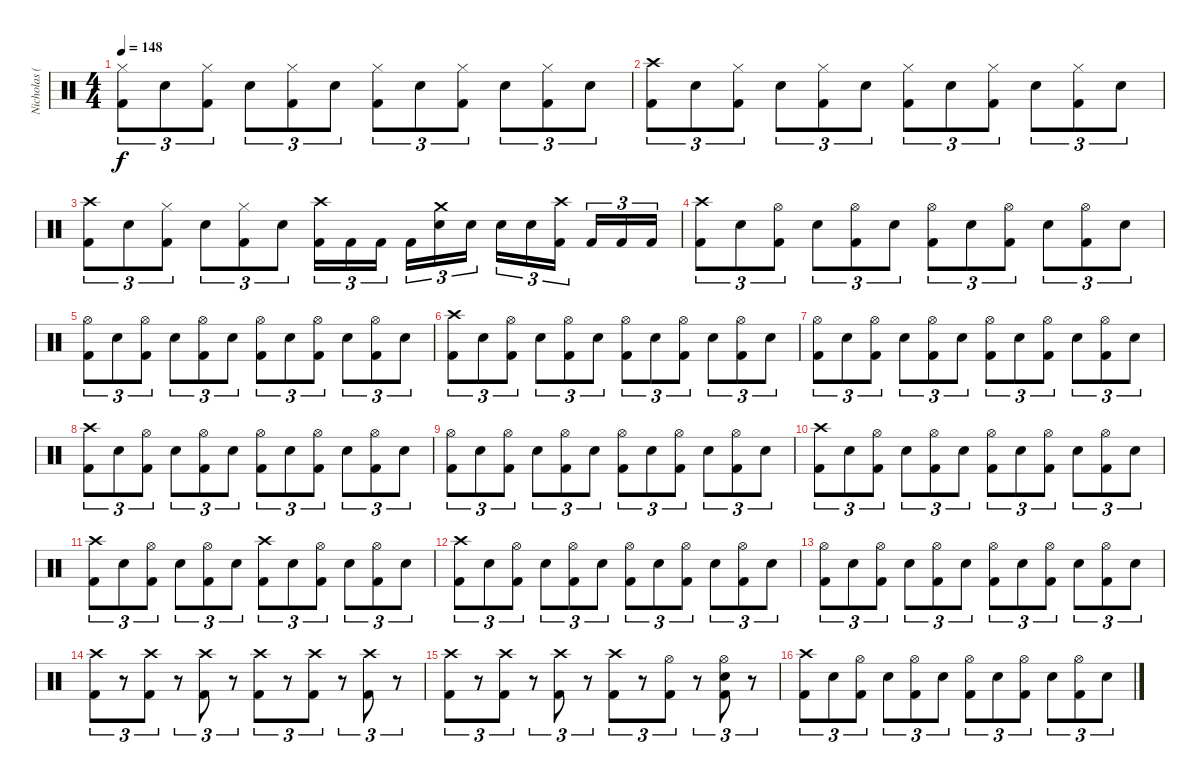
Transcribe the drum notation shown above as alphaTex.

\track ("Nicholas (Drums)" "Nicholas (") {instrument percussion}
\staff {score}
\articulation defaults
\ts (4 4)
\tempo 148
\clef neutral
\ks c
("Hi-Hat (closed)" "Kick (hit) 2").8{tu (3 2) dy f} "Electric Snare (hit)".8{tu (3 2)} ("Hi-Hat (closed)" "Kick (hit) 2").8{tu (3 2)} "Electric Snare (hit)".8{tu (3 2)} ("Hi-Hat (closed)" "Kick (hit) 2").8{tu (3 2)} "Electric Snare (hit)".8{tu (3 2)} ("Hi-Hat (closed)" "Kick (hit) 2").8{tu (3 2)} "Electric Snare (hit)".8{tu (3 2)} ("Hi-Hat (closed)" "Kick (hit) 2").8{tu (3 2)} "Electric Snare (hit)".8{tu (3 2)} ("Hi-Hat (closed)" "Kick (hit) 2").8{tu (3 2)} "Electric Snare (hit)".8{tu (3 2)} |
("Crash high (hit)" "Kick (hit) 2").8{tu (3 2)} "Electric Snare (hit)".8{tu (3 2)} ("Hi-Hat (closed)" "Kick (hit) 2").8{tu (3 2)} "Electric Snare (hit)".8{tu (3 2)} ("Hi-Hat (closed)" "Kick (hit) 2").8{tu (3 2)} "Electric Snare (hit)".8{tu (3 2)} ("Hi-Hat (closed)" "Kick (hit) 2").8{tu (3 2)} "Electric Snare (hit)".8{tu (3 2)} ("Hi-Hat (closed)" "Kick (hit) 2").8{tu (3 2)} "Electric Snare (hit)".8{tu (3 2)} ("Hi-Hat (closed)" "Kick (hit) 2").8{tu (3 2)} "Electric Snare (hit)".8{tu (3 2)} |
("Crash high (hit)" "Kick (hit) 2").8{tu (3 2)} "Electric Snare (hit)".8{tu (3 2)} ("Hi-Hat (closed)" "Kick (hit) 2").8{tu (3 2)} "Electric Snare (hit)".8{tu (3 2)} ("Hi-Hat (closed)" "Kick (hit) 2").8{tu (3 2)} "Electric Snare (hit)".8{tu (3 2)} ("Crash high (hit)" "Kick (hit) 2").16{tu (3 2)} "Kick (hit) 2".16{tu (3 2)} "Kick (hit) 2".16{tu (3 2)} "Kick (hit) 2".16{tu (3 2)} ("Crash medium (hit)" "Electric Snare (hit)").16{tu (3 2)} "Electric Snare (hit)".16{tu (3 2)} "Electric Snare (hit)".16{tu (3 2)} "Electric Snare (hit)".16{tu (3 2)} ("Crash high (hit)" "Kick (hit) 2").16{tu (3 2)} "Kick (hit) 2".16{tu (3 2)} "Kick (hit) 2".16{tu (3 2)} "Kick (hit) 2".16{tu (3 2)} |
("Crash high (hit)" "Kick (hit) 2").8{tu (3 2)} "Electric Snare (hit)".8{tu (3 2)} ("Hi-Hat (open)" "Kick (hit) 2").8{tu (3 2)} "Electric Snare (hit)".8{tu (3 2)} ("Hi-Hat (open)" "Kick (hit) 2").8{tu (3 2)} "Electric Snare (hit)".8{tu (3 2)} ("Hi-Hat (open)" "Kick (hit) 2").8{tu (3 2)} "Electric Snare (hit)".8{tu (3 2)} ("Hi-Hat (open)" "Kick (hit) 2").8{tu (3 2)} "Electric Snare (hit)".8{tu (3 2)} ("Hi-Hat (open)" "Kick (hit) 2").8{tu (3 2)} "Electric Snare (hit)".8{tu (3 2)} |
("Hi-Hat (open)" "Kick (hit) 2").8{tu (3 2)} "Electric Snare (hit)".8{tu (3 2)} ("Hi-Hat (open)" "Kick (hit) 2").8{tu (3 2)} "Electric Snare (hit)".8{tu (3 2)} ("Hi-Hat (open)" "Kick (hit) 2").8{tu (3 2)} "Electric Snare (hit)".8{tu (3 2)} ("Hi-Hat (open)" "Kick (hit) 2").8{tu (3 2)} "Electric Snare (hit)".8{tu (3 2)} ("Hi-Hat (open)" "Kick (hit) 2").8{tu (3 2)} "Electric Snare (hit)".8{tu (3 2)} ("Hi-Hat (open)" "Kick (hit) 2").8{tu (3 2)} "Electric Snare (hit)".8{tu (3 2)} |
("Crash high (hit)" "Kick (hit) 2").8{tu (3 2)} "Electric Snare (hit)".8{tu (3 2)} ("Hi-Hat (open)" "Kick (hit) 2").8{tu (3 2)} "Electric Snare (hit)".8{tu (3 2)} ("Hi-Hat (open)" "Kick (hit) 2").8{tu (3 2)} "Electric Snare (hit)".8{tu (3 2)} ("Hi-Hat (open)" "Kick (hit) 2").8{tu (3 2)} "Electric Snare (hit)".8{tu (3 2)} ("Hi-Hat (open)" "Kick (hit) 2").8{tu (3 2)} "Electric Snare (hit)".8{tu (3 2)} ("Hi-Hat (open)" "Kick (hit) 2").8{tu (3 2)} "Electric Snare (hit)".8{tu (3 2)} |
("Hi-Hat (open)" "Kick (hit) 2").8{tu (3 2)} "Electric Snare (hit)".8{tu (3 2)} ("Hi-Hat (open)" "Kick (hit) 2").8{tu (3 2)} "Electric Snare (hit)".8{tu (3 2)} ("Hi-Hat (open)" "Kick (hit) 2").8{tu (3 2)} "Electric Snare (hit)".8{tu (3 2)} ("Hi-Hat (open)" "Kick (hit) 2").8{tu (3 2)} "Electric Snare (hit)".8{tu (3 2)} ("Hi-Hat (open)" "Kick (hit) 2").8{tu (3 2)} "Electric Snare (hit)".8{tu (3 2)} ("Hi-Hat (open)" "Kick (hit) 2").8{tu (3 2)} "Electric Snare (hit)".8{tu (3 2)} |
("Crash high (hit)" "Kick (hit) 2").8{tu (3 2)} "Electric Snare (hit)".8{tu (3 2)} ("Hi-Hat (open)" "Kick (hit) 2").8{tu (3 2)} "Electric Snare (hit)".8{tu (3 2)} ("Hi-Hat (open)" "Kick (hit) 2").8{tu (3 2)} "Electric Snare (hit)".8{tu (3 2)} ("Hi-Hat (open)" "Kick (hit) 2").8{tu (3 2)} "Electric Snare (hit)".8{tu (3 2)} ("Hi-Hat (open)" "Kick (hit) 2").8{tu (3 2)} "Electric Snare (hit)".8{tu (3 2)} ("Hi-Hat (open)" "Kick (hit) 2").8{tu (3 2)} "Electric Snare (hit)".8{tu (3 2)} |
("Hi-Hat (open)" "Kick (hit) 2").8{tu (3 2)} "Electric Snare (hit)".8{tu (3 2)} ("Hi-Hat (open)" "Kick (hit) 2").8{tu (3 2)} "Electric Snare (hit)".8{tu (3 2)} ("Hi-Hat (open)" "Kick (hit) 2").8{tu (3 2)} "Electric Snare (hit)".8{tu (3 2)} ("Hi-Hat (open)" "Kick (hit) 2").8{tu (3 2)} "Electric Snare (hit)".8{tu (3 2)} ("Hi-Hat (open)" "Kick (hit) 2").8{tu (3 2)} "Electric Snare (hit)".8{tu (3 2)} ("Hi-Hat (open)" "Kick (hit) 2").8{tu (3 2)} "Electric Snare (hit)".8{tu (3 2)} |
("Crash high (hit)" "Kick (hit) 2").8{tu (3 2)} "Electric Snare (hit)".8{tu (3 2)} ("Hi-Hat (open)" "Kick (hit) 2").8{tu (3 2)} "Electric Snare (hit)".8{tu (3 2)} ("Hi-Hat (open)" "Kick (hit) 2").8{tu (3 2)} "Electric Snare (hit)".8{tu (3 2)} ("Hi-Hat (open)" "Kick (hit) 2").8{tu (3 2)} "Electric Snare (hit)".8{tu (3 2)} ("Hi-Hat (open)" "Kick (hit) 2").8{tu (3 2)} "Electric Snare (hit)".8{tu (3 2)} ("Hi-Hat (open)" "Kick (hit) 2").8{tu (3 2)} "Electric Snare (hit)".8{tu (3 2)} |
("Crash high (hit)" "Kick (hit) 2").8{tu (3 2)} "Electric Snare (hit)".8{tu (3 2)} ("Hi-Hat (open)" "Kick (hit) 2").8{tu (3 2)} "Electric Snare (hit)".8{tu (3 2)} ("Hi-Hat (open)" "Kick (hit) 2").8{tu (3 2)} "Electric Snare (hit)".8{tu (3 2)} ("Crash high (hit)" "Kick (hit) 2").8{tu (3 2)} "Electric Snare (hit)".8{tu (3 2)} ("Hi-Hat (open)" "Kick (hit) 2").8{tu (3 2)} "Electric Snare (hit)".8{tu (3 2)} ("Hi-Hat (open)" "Kick (hit) 2").8{tu (3 2)} "Electric Snare (hit)".8{tu (3 2)} |
("Crash high (hit)" "Kick (hit) 2").8{tu (3 2)} "Electric Snare (hit)".8{tu (3 2)} ("Hi-Hat (open)" "Kick (hit) 2").8{tu (3 2)} "Electric Snare (hit)".8{tu (3 2)} ("Hi-Hat (open)" "Kick (hit) 2").8{tu (3 2)} "Electric Snare (hit)".8{tu (3 2)} ("Hi-Hat (open)" "Kick (hit) 2").8{tu (3 2)} "Electric Snare (hit)".8{tu (3 2)} ("Hi-Hat (open)" "Kick (hit) 2").8{tu (3 2)} "Electric Snare (hit)".8{tu (3 2)} ("Hi-Hat (open)" "Kick (hit) 2").8{tu (3 2)} "Electric Snare (hit)".8{tu (3 2)} |
("Hi-Hat (open)" "Kick (hit) 2").8{tu (3 2)} "Electric Snare (hit)".8{tu (3 2)} ("Hi-Hat (open)" "Kick (hit) 2").8{tu (3 2)} "Electric Snare (hit)".8{tu (3 2)} ("Hi-Hat (open)" "Kick (hit) 2").8{tu (3 2)} "Electric Snare (hit)".8{tu (3 2)} ("Hi-Hat (open)" "Kick (hit) 2").8{tu (3 2)} "Electric Snare (hit)".8{tu (3 2)} ("Hi-Hat (open)" "Kick (hit) 2").8{tu (3 2)} "Electric Snare (hit)".8{tu (3 2)} ("Hi-Hat (open)" "Kick (hit) 2").8{tu (3 2)} "Electric Snare (hit)".8{tu (3 2)} |
("Crash high (hit)" "Kick (hit) 2").8{tu (3 2)} r.8{tu (3 2)} ("Crash high (hit)" "Kick (hit) 2").8{tu (3 2)} r.8{tu (3 2)} ("Crash high (hit)" "Kick (hit) 2").8{tu (3 2)} r.8{tu (3 2)} ("Crash high (hit)" "Kick (hit) 2").8{tu (3 2)} r.8{tu (3 2)} ("Crash high (hit)" "Kick (hit) 2").8{tu (3 2)} r.8{tu (3 2)} ("Crash high (hit)" "Kick (hit) 2").8{tu (3 2)} r.8{tu (3 2)} |
("Crash high (hit)" "Kick (hit) 2").8{tu (3 2)} r.8{tu (3 2)} ("Crash high (hit)" "Kick (hit) 2").8{tu (3 2)} r.8{tu (3 2)} ("Crash high (hit)" "Kick (hit) 2").8{tu (3 2)} r.8{tu (3 2)} ("Crash high (hit)" "Kick (hit) 2").8{tu (3 2)} r.8{tu (3 2)} ("Hi-Hat (open)" "Kick (hit) 2").8{tu (3 2)} r.8{tu (3 2)} ("Hi-Hat (open)" "Electric Snare (hit)" "Kick (hit) 2").8{tu (3 2)} r.8{tu (3 2)} |
("Crash high (hit)" "Kick (hit) 2").8{tu (3 2)} "Electric Snare (hit)".8{tu (3 2)} ("Hi-Hat (open)" "Kick (hit) 2").8{tu (3 2)} "Electric Snare (hit)".8{tu (3 2)} ("Hi-Hat (open)" "Kick (hit) 2").8{tu (3 2)} "Electric Snare (hit)".8{tu (3 2)} ("Hi-Hat (open)" "Kick (hit) 2").8{tu (3 2)} "Electric Snare (hit)".8{tu (3 2)} ("Hi-Hat (open)" "Kick (hit) 2").8{tu (3 2)} "Electric Snare (hit)".8{tu (3 2)} ("Hi-Hat (open)" "Kick (hit) 2").8{tu (3 2)} "Electric Snare (hit)".8{tu (3 2)}
